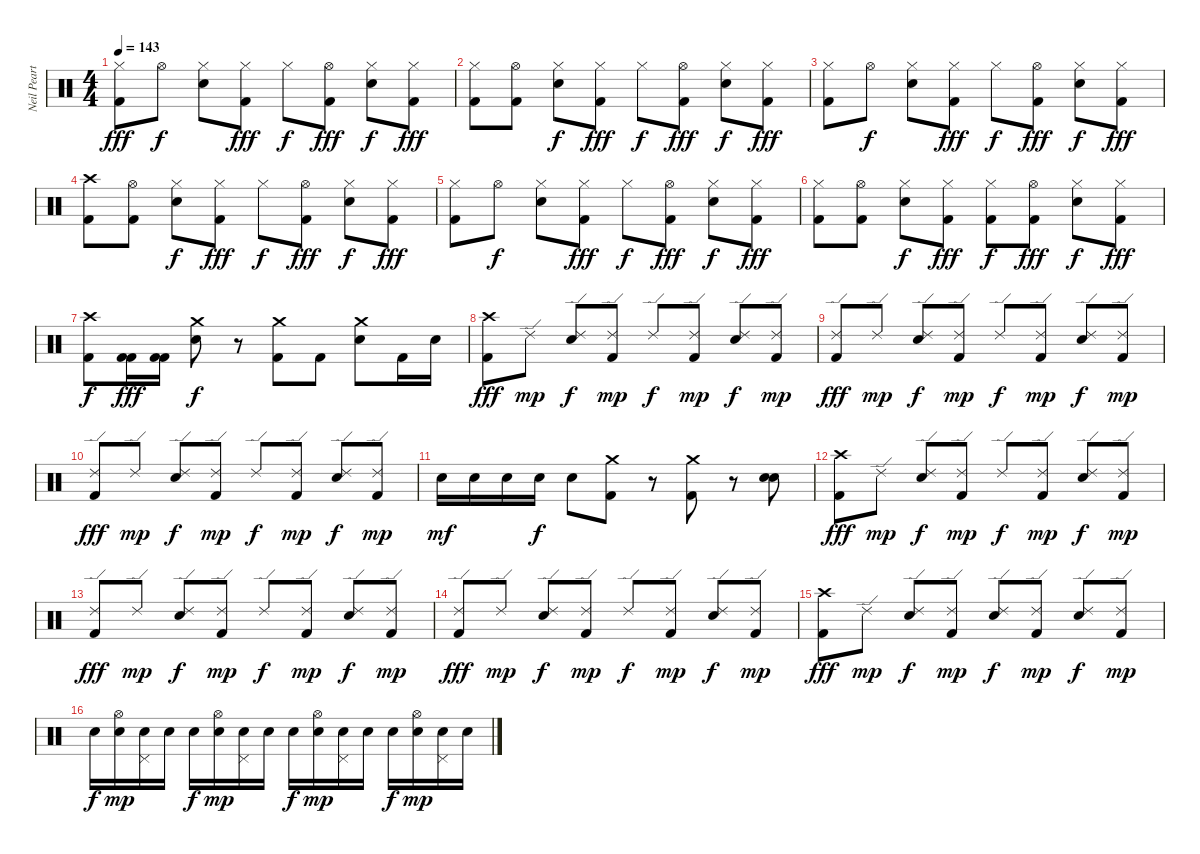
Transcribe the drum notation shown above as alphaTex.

\track ("Neil Peart" "Neil Peart") {instrument percussion}
\staff {score}
\articulation defaults
\ts (4 4)
\tempo 143
\clef neutral
\ks c
("Kick (hit) 2" "Hi-Hat (closed)").8{dy fff} "Hi-Hat (open)".8{dy f} ("Electric Snare (hit)" "Hi-Hat (closed)").8 ("Kick (hit) 2" "Hi-Hat (closed)").8{dy fff} "Hi-Hat (closed)".8{dy f} ("Kick (hit) 2" "Hi-Hat (open)").8{dy fff} ("Electric Snare (hit)" "Hi-Hat (closed)").8{dy f} ("Kick (hit) 2" "Hi-Hat (closed)").8{dy fff} |
("Kick (hit) 2" "Hi-Hat (closed)").8 ("Kick (hit) 2" "Hi-Hat (open)").8 ("Electric Snare (hit)" "Hi-Hat (closed)").8{dy f} ("Kick (hit) 2" "Hi-Hat (closed)").8{dy fff} "Hi-Hat (closed)".8{dy f} ("Kick (hit) 2" "Hi-Hat (open)").8{dy fff} ("Electric Snare (hit)" "Hi-Hat (closed)").8{dy f} ("Kick (hit) 2" "Hi-Hat (closed)").8{dy fff} |
("Kick (hit) 2" "Hi-Hat (closed)").8 "Hi-Hat (open)".8{dy f} ("Electric Snare (hit)" "Hi-Hat (closed)").8 ("Kick (hit) 2" "Hi-Hat (closed)").8{dy fff} "Hi-Hat (closed)".8{dy f} ("Kick (hit) 2" "Hi-Hat (open)").8{dy fff} ("Electric Snare (hit)" "Hi-Hat (closed)").8{dy f} ("Kick (hit) 2" "Hi-Hat (closed)").8{dy fff} |
("Kick (hit) 2" "Crash high (hit)").8 ("Kick (hit) 2" "Hi-Hat (open)").8 ("Electric Snare (hit)" "Hi-Hat (closed)").8{dy f} ("Kick (hit) 2" "Hi-Hat (closed)").8{dy fff} "Hi-Hat (closed)".8{dy f} ("Kick (hit) 2" "Hi-Hat (open)").8{dy fff} ("Electric Snare (hit)" "Hi-Hat (closed)").8{dy f} ("Kick (hit) 2" "Hi-Hat (closed)").8{dy fff} |
("Kick (hit) 2" "Hi-Hat (closed)").8 "Hi-Hat (open)".8{dy f} ("Electric Snare (hit)" "Hi-Hat (closed)").8 ("Kick (hit) 2" "Hi-Hat (closed)").8{dy fff} "Hi-Hat (closed)".8{dy f} ("Kick (hit) 2" "Hi-Hat (open)").8{dy fff} ("Electric Snare (hit)" "Hi-Hat (closed)").8{dy f} ("Kick (hit) 2" "Hi-Hat (closed)").8{dy fff} |
("Kick (hit) 2" "Hi-Hat (closed)").8 ("Kick (hit) 2" "Hi-Hat (open)").8 ("Electric Snare (hit)" "Hi-Hat (closed)").8{dy f} ("Kick (hit) 2" "Hi-Hat (closed)").8{dy fff} ("Kick (hit) 2" "Hi-Hat (closed)").8{dy f} ("Kick (hit) 2" "Hi-Hat (open)").8{dy fff} ("Electric Snare (hit)" "Hi-Hat (closed)").8{dy f} ("Kick (hit) 2" "Hi-Hat (closed)").8{dy fff} |
("Kick (hit) 2" "Crash high (hit)").8{dy f} ("Kick (hit) 2" "Kick (hit) 2").16{dy fff} ("Kick (hit) 2" "Kick (hit) 2").16 ("Electric Snare (hit)" "Crash medium (hit)").8{dy f} r.8 ("Kick (hit) 2" "Crash medium (hit)").8 "Kick (hit) 2".8 ("Electric Snare (hit)" "Crash medium (hit)").8 "Kick (hit) 2".16 "Electric Snare (hit)".16 |
("Kick (hit) 2" "Crash high (hit)").8{dy fff} "Ride (edge) 2".8{dy mp} ("Electric Snare (hit)" "Ride (edge) 2").8{dy f} ("Kick (hit) 2" "Ride (edge) 2").8{dy mp} "Ride (edge) 2".8{dy f} ("Kick (hit) 2" "Ride (edge) 2").8{dy mp} ("Electric Snare (hit)" "Ride (edge) 2").8{dy f} ("Kick (hit) 2" "Ride (edge) 2").8{dy mp} |
("Kick (hit) 2" "Ride (edge) 2").8{dy fff} "Ride (edge) 2".8{dy mp} ("Electric Snare (hit)" "Ride (edge) 2").8{dy f} ("Kick (hit) 2" "Ride (edge) 2").8{dy mp} "Ride (edge) 2".8{dy f} ("Kick (hit) 2" "Ride (edge) 2").8{dy mp} ("Electric Snare (hit)" "Ride (edge) 2").8{dy f} ("Kick (hit) 2" "Ride (edge) 2").8{dy mp} |
("Kick (hit) 2" "Ride (edge) 2").8{dy fff} "Ride (edge) 2".8{dy mp} ("Electric Snare (hit)" "Ride (edge) 2").8{dy f} ("Kick (hit) 2" "Ride (edge) 2").8{dy mp} "Ride (edge) 2".8{dy f} ("Kick (hit) 2" "Ride (edge) 2").8{dy mp} ("Electric Snare (hit)" "Ride (edge) 2").8{dy f} ("Kick (hit) 2" "Ride (edge) 2").8{dy mp} |
"Electric Snare (hit)".16{dy mf} "Electric Snare (hit)".16 "Electric Snare (hit)".16 "Electric Snare (hit)".16{dy f} "Electric Snare (hit)".8 ("Crash medium (hit)" "Kick (hit) 2").8 r.8 ("Crash medium (hit)" "Kick (hit) 2").8 r.8 ("Snare (hit) 2" "Electric Snare (hit)").8 |
("Kick (hit) 2" "Crash high (hit)").8{dy fff} "Ride (edge) 2".8{dy mp} ("Electric Snare (hit)" "Ride (edge) 2").8{dy f} ("Kick (hit) 2" "Ride (edge) 2").8{dy mp} "Ride (edge) 2".8{dy f} ("Kick (hit) 2" "Ride (edge) 2").8{dy mp} ("Electric Snare (hit)" "Ride (edge) 2").8{dy f} ("Kick (hit) 2" "Ride (edge) 2").8{dy mp} |
("Kick (hit) 2" "Ride (edge) 2").8{dy fff} "Ride (edge) 2".8{dy mp} ("Electric Snare (hit)" "Ride (edge) 2").8{dy f} ("Kick (hit) 2" "Ride (edge) 2").8{dy mp} "Ride (edge) 2".8{dy f} ("Kick (hit) 2" "Ride (edge) 2").8{dy mp} ("Electric Snare (hit)" "Ride (edge) 2").8{dy f} ("Kick (hit) 2" "Ride (edge) 2").8{dy mp} |
("Kick (hit) 2" "Ride (edge) 2").8{dy fff} "Ride (edge) 2".8{dy mp} ("Electric Snare (hit)" "Ride (edge) 2").8{dy f} ("Kick (hit) 2" "Ride (edge) 2").8{dy mp} "Ride (edge) 2".8{dy f} ("Kick (hit) 2" "Ride (edge) 2").8{dy mp} ("Electric Snare (hit)" "Ride (edge) 2").8{dy f} ("Kick (hit) 2" "Ride (edge) 2").8{dy mp} |
("Kick (hit) 2" "Crash high (hit)").8{dy fff} "Ride (edge) 2".8{dy mp} ("Electric Snare (hit)" "Ride (edge) 2").8{dy f} ("Kick (hit) 2" "Ride (edge) 2").8{dy mp} ("Electric Snare (hit)" "Ride (edge) 2").8{dy f} ("Kick (hit) 2" "Ride (edge) 2").8{dy mp} ("Electric Snare (hit)" "Ride (edge) 2").8{dy f} ("Kick (hit) 2" "Ride (edge) 2").8{dy mp} |
"Electric Snare (hit)".16{dy f} ("Electric Snare (hit)" "Hi-Hat (open)").16{dy mp} ("Electric Snare (hit)" "Pedal Hi-Hat (hit)").16 "Electric Snare (hit)".16 "Electric Snare (hit)".16{dy f} ("Electric Snare (hit)" "Hi-Hat (open)").16{dy mp} ("Electric Snare (hit)" "Pedal Hi-Hat (hit)").16 "Electric Snare (hit)".16 "Electric Snare (hit)".16{dy f} ("Electric Snare (hit)" "Hi-Hat (open)").16{dy mp} ("Electric Snare (hit)" "Pedal Hi-Hat (hit)").16 "Electric Snare (hit)".16 "Electric Snare (hit)".16{dy f} ("Electric Snare (hit)" "Hi-Hat (open)").16{dy mp} ("Electric Snare (hit)" "Pedal Hi-Hat (hit)").16 "Electric Snare (hit)".16
